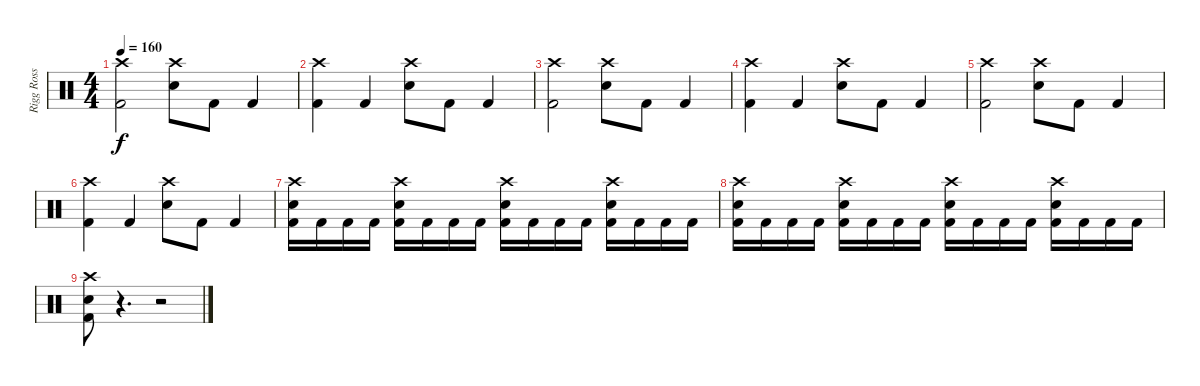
\track ("Rigg Ross" "Rigg Ross") {instrument percussion}
\staff {score}
\articulation defaults
\ts (4 4)
\tempo 160
\clef neutral
\ks c
("Crash high (hit)" "Kick (hit) 2").2{dy f} ("Crash high (hit)" "Electric Snare (hit)").8 "Kick (hit) 2".8 "Kick (hit) 2".4 |
("Crash high (hit)" "Kick (hit) 2").4 "Kick (hit) 2".4 ("Crash high (hit)" "Electric Snare (hit)").8 "Kick (hit) 2".8 "Kick (hit) 2".4 |
("Crash high (hit)" "Kick (hit) 2").2 ("Crash high (hit)" "Electric Snare (hit)").8 "Kick (hit) 2".8 "Kick (hit) 2".4 |
("Crash high (hit)" "Kick (hit) 2").4 "Kick (hit) 2".4 ("Crash high (hit)" "Electric Snare (hit)").8 "Kick (hit) 2".8 "Kick (hit) 2".4 |
("Crash high (hit)" "Kick (hit) 2").2 ("Crash high (hit)" "Electric Snare (hit)").8 "Kick (hit) 2".8 "Kick (hit) 2".4 |
("Crash high (hit)" "Kick (hit) 2").4 "Kick (hit) 2".4 ("Crash high (hit)" "Electric Snare (hit)").8 "Kick (hit) 2".8 "Kick (hit) 2".4 |
("Crash high (hit)" "Electric Snare (hit)" "Kick (hit) 2").16 "Kick (hit) 2".16 "Kick (hit) 2".16 "Kick (hit) 2".16 ("Crash high (hit)" "Electric Snare (hit)" "Kick (hit) 2").16 "Kick (hit) 2".16 "Kick (hit) 2".16 "Kick (hit) 2".16 ("Crash high (hit)" "Electric Snare (hit)" "Kick (hit) 2").16 "Kick (hit) 2".16 "Kick (hit) 2".16 "Kick (hit) 2".16 ("Crash high (hit)" "Electric Snare (hit)" "Kick (hit) 2").16 "Kick (hit) 2".16 "Kick (hit) 2".16 "Kick (hit) 2".16 |
("Crash high (hit)" "Electric Snare (hit)" "Kick (hit) 2").16 "Kick (hit) 2".16 "Kick (hit) 2".16 "Kick (hit) 2".16 ("Crash high (hit)" "Electric Snare (hit)" "Kick (hit) 2").16 "Kick (hit) 2".16 "Kick (hit) 2".16 "Kick (hit) 2".16 ("Crash high (hit)" "Electric Snare (hit)" "Kick (hit) 2").16 "Kick (hit) 2".16 "Kick (hit) 2".16 "Kick (hit) 2".16 ("Crash high (hit)" "Electric Snare (hit)" "Kick (hit) 2").16 "Kick (hit) 2".16 "Kick (hit) 2".16 "Kick (hit) 2".16 |
("Crash high (hit)" "Electric Snare (hit)" "Kick (hit) 2").8 r.4{d} r.2
